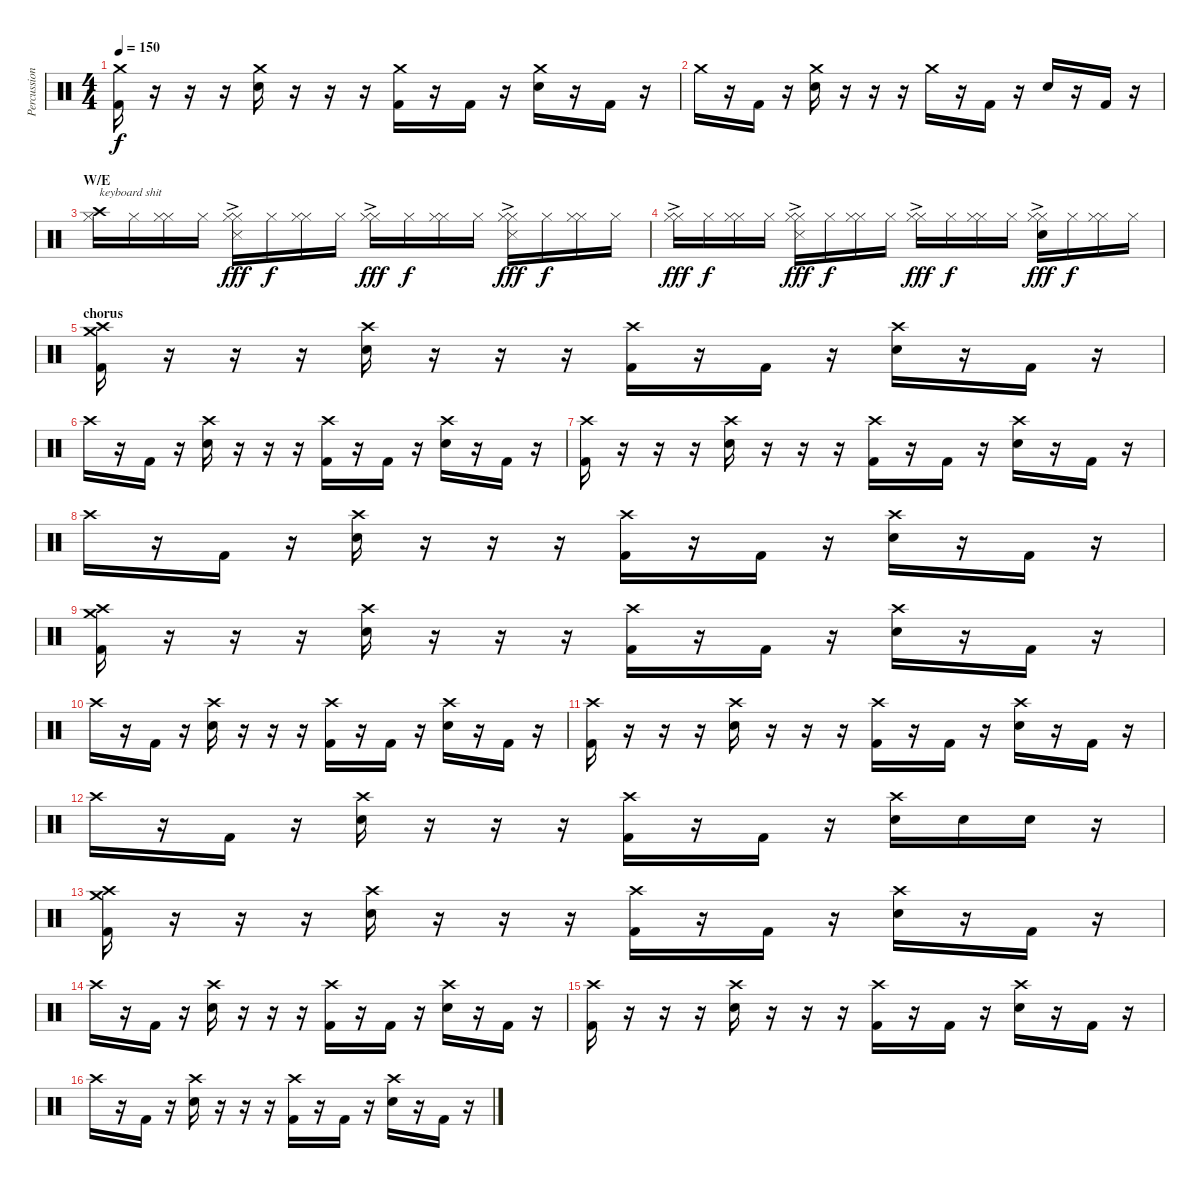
\track ("Percussion" "Percussion") {instrument percussion}
\staff {score}
\articulation defaults
\ts (4 4)
\tempo 150
\clef neutral
\ks c
("Crash medium (hit)" "Kick (hit) 2").16{dy f} r.16 r.16 r.16 ("Crash medium (hit)" "Electric Snare (hit)").16 r.16 r.16 r.16 ("Crash medium (hit)" "Kick (hit) 2").16 r.16 "Kick (hit) 2".16 r.16 ("Crash medium (hit)" "Electric Snare (hit)").16 r.16 "Kick (hit) 2".16 r.16 |
"Crash medium (hit)".16 r.16 "Kick (hit) 2".16 r.16 ("Crash medium (hit)" "Electric Snare (hit)").16 r.16 r.16 r.16 "Crash medium (hit)".16 r.16 "Kick (hit) 2".16 r.16 "Electric Snare (hit)".16 r.16 "Kick (hit) 2".16 r.16 |
\section ("" "W/E")
("Crash high (hit)" "Hi-Hat (closed)").16{txt "keyboard shit"} "Hi-Hat (closed)".16 ("Hi-Hat (closed)" "Hi-Hat (closed)").16 "Hi-Hat (closed)".16 ("Hi-Hat (closed)"{ac} "Hi-Hat (closed)" "Metronome (hit)").16{dy fff} "Hi-Hat (closed)".16{dy f} ("Hi-Hat (closed)" "Hi-Hat (closed)").16 "Hi-Hat (closed)".16 ("Hi-Hat (closed)"{ac} "Hi-Hat (closed)").16{dy fff} "Hi-Hat (closed)".16{dy f} ("Hi-Hat (closed)" "Hi-Hat (closed)").16 "Hi-Hat (closed)".16 ("Hi-Hat (closed)"{ac} "Hi-Hat (closed)" "Metronome (hit)").16{dy fff} "Hi-Hat (closed)".16{dy f} ("Hi-Hat (closed)" "Hi-Hat (closed)").16 "Hi-Hat (closed)".16 |
("Hi-Hat (closed)"{ac} "Hi-Hat (closed)").16{dy fff} "Hi-Hat (closed)".16{dy f} ("Hi-Hat (closed)" "Hi-Hat (closed)").16 "Hi-Hat (closed)".16 ("Hi-Hat (closed)"{ac} "Hi-Hat (closed)" "Metronome (hit)").16{dy fff} "Hi-Hat (closed)".16{dy f} ("Hi-Hat (closed)" "Hi-Hat (closed)").16 "Hi-Hat (closed)".16 ("Hi-Hat (closed)"{ac} "Hi-Hat (closed)").16{dy fff} "Hi-Hat (closed)".16{dy f} ("Hi-Hat (closed)" "Hi-Hat (closed)").16 "Hi-Hat (closed)".16 ("Hi-Hat (closed)"{ac} "Hi-Hat (closed)" "Electric Snare (hit)").16{dy fff} "Hi-Hat (closed)".16{dy f} ("Hi-Hat (closed)" "Hi-Hat (closed)").16 "Hi-Hat (closed)".16 |
\section ("" "chorus")
("Crash high (hit)" "Crash medium (hit)" "Kick (hit) 2").16 r.16 r.16 r.16 ("Crash high (hit)" "Electric Snare (hit)").16 r.16 r.16 r.16 ("Crash high (hit)" "Kick (hit) 2").16 r.16 "Kick (hit) 2".16 r.16 ("Crash high (hit)" "Electric Snare (hit)").16 r.16 "Kick (hit) 2".16 r.16 |
"Crash high (hit)".16 r.16 "Kick (hit) 2".16 r.16 ("Crash high (hit)" "Electric Snare (hit)").16 r.16 r.16 r.16 ("Crash high (hit)" "Kick (hit) 2").16 r.16 "Kick (hit) 2".16 r.16 ("Crash high (hit)" "Electric Snare (hit)").16 r.16 "Kick (hit) 2".16 r.16 |
("Crash high (hit)" "Kick (hit) 2").16 r.16 r.16 r.16 ("Crash high (hit)" "Electric Snare (hit)").16 r.16 r.16 r.16 ("Crash high (hit)" "Kick (hit) 2").16 r.16 "Kick (hit) 2".16 r.16 ("Crash high (hit)" "Electric Snare (hit)").16 r.16 "Kick (hit) 2".16 r.16 |
"Crash high (hit)".16 r.16 "Kick (hit) 2".16 r.16 ("Crash high (hit)" "Electric Snare (hit)").16 r.16 r.16 r.16 ("Crash high (hit)" "Kick (hit) 2").16 r.16 "Kick (hit) 2".16 r.16 ("Crash high (hit)" "Electric Snare (hit)").16 r.16 "Kick (hit) 2".16 r.16 |
("Crash high (hit)" "Crash medium (hit)" "Kick (hit) 2").16 r.16 r.16 r.16 ("Crash high (hit)" "Electric Snare (hit)").16 r.16 r.16 r.16 ("Crash high (hit)" "Kick (hit) 2").16 r.16 "Kick (hit) 2".16 r.16 ("Crash high (hit)" "Electric Snare (hit)").16 r.16 "Kick (hit) 2".16 r.16 |
"Crash high (hit)".16 r.16 "Kick (hit) 2".16 r.16 ("Crash high (hit)" "Electric Snare (hit)").16 r.16 r.16 r.16 ("Crash high (hit)" "Kick (hit) 2").16 r.16 "Kick (hit) 2".16 r.16 ("Crash high (hit)" "Electric Snare (hit)").16 r.16 "Kick (hit) 2".16 r.16 |
("Crash high (hit)" "Kick (hit) 2").16 r.16 r.16 r.16 ("Crash high (hit)" "Electric Snare (hit)").16 r.16 r.16 r.16 ("Crash high (hit)" "Kick (hit) 2").16 r.16 "Kick (hit) 2".16 r.16 ("Crash high (hit)" "Electric Snare (hit)").16 r.16 "Kick (hit) 2".16 r.16 |
"Crash high (hit)".16 r.16 "Kick (hit) 2".16 r.16 ("Crash high (hit)" "Electric Snare (hit)").16 r.16 r.16 r.16 ("Crash high (hit)" "Kick (hit) 2").16 r.16 "Kick (hit) 2".16 r.16 ("Crash high (hit)" "Electric Snare (hit)").16 "Electric Snare (hit)".16 "Electric Snare (hit)".16 r.16 |
("Crash high (hit)" "Crash medium (hit)" "Kick (hit) 2").16 r.16 r.16 r.16 ("Crash high (hit)" "Electric Snare (hit)").16 r.16 r.16 r.16 ("Crash high (hit)" "Kick (hit) 2").16 r.16 "Kick (hit) 2".16 r.16 ("Crash high (hit)" "Electric Snare (hit)").16 r.16 "Kick (hit) 2".16 r.16 |
"Crash high (hit)".16 r.16 "Kick (hit) 2".16 r.16 ("Crash high (hit)" "Electric Snare (hit)").16 r.16 r.16 r.16 ("Crash high (hit)" "Kick (hit) 2").16 r.16 "Kick (hit) 2".16 r.16 ("Crash high (hit)" "Electric Snare (hit)").16 r.16 "Kick (hit) 2".16 r.16 |
("Crash high (hit)" "Kick (hit) 2").16 r.16 r.16 r.16 ("Crash high (hit)" "Electric Snare (hit)").16 r.16 r.16 r.16 ("Crash high (hit)" "Kick (hit) 2").16 r.16 "Kick (hit) 2".16 r.16 ("Crash high (hit)" "Electric Snare (hit)").16 r.16 "Kick (hit) 2".16 r.16 |
"Crash high (hit)".16 r.16 "Kick (hit) 2".16 r.16 ("Crash high (hit)" "Electric Snare (hit)").16 r.16 r.16 r.16 ("Crash high (hit)" "Kick (hit) 2").16 r.16 "Kick (hit) 2".16 r.16 ("Crash high (hit)" "Electric Snare (hit)").16 r.16 "Kick (hit) 2".16 r.16
